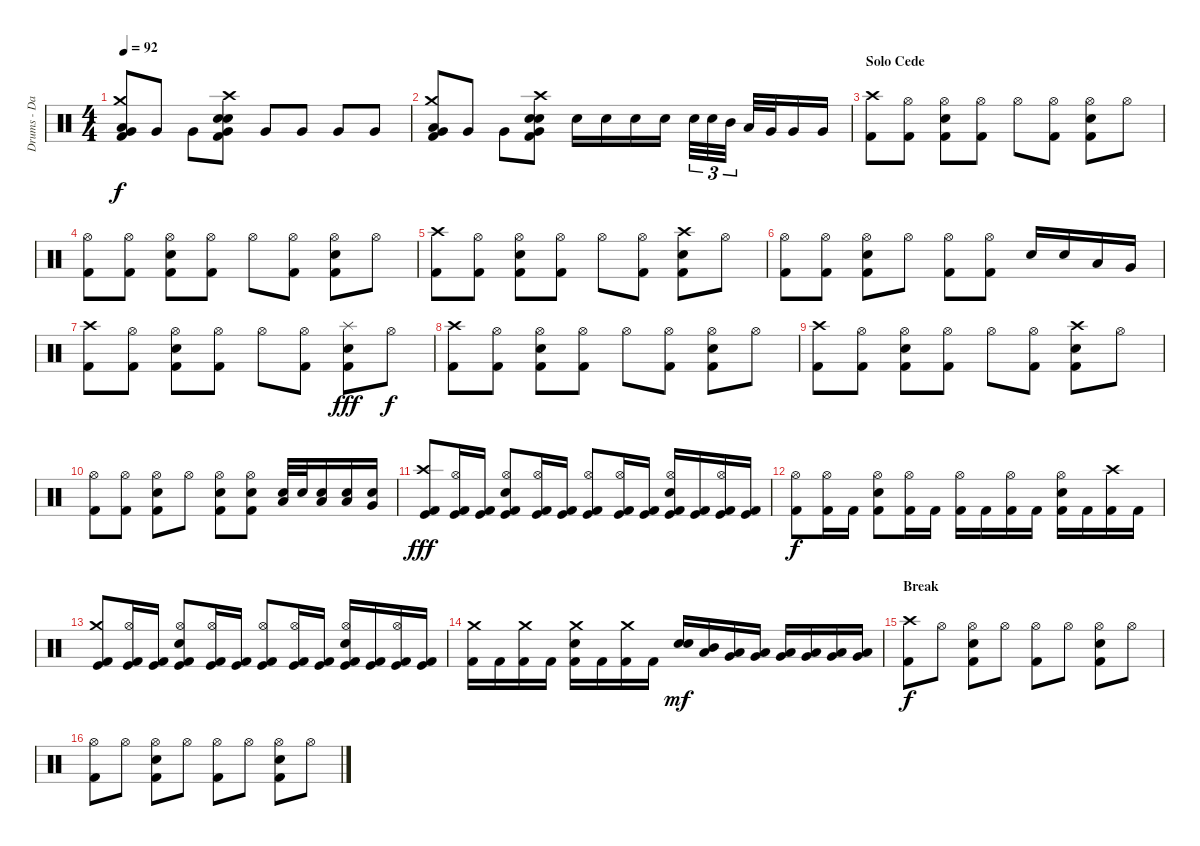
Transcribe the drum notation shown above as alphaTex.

\track ("Drums - Daniel Zimmermann" "Drums - Da") {instrument percussion}
\staff {score}
\articulation defaults
\ts (4 4)
\tempo 92
\clef neutral
\ks c
("Kick (hit) 2" "Crash medium (hit)" "Low Tom (hit)" "Very Low Tom (hit)").8{dy f} "Very Low Tom (hit)".8 "Very Low Tom (hit)".8 ("Kick (hit) 2" "Electric Snare (hit)" "Crash high (hit)" "Electric Snare (hit)" "Very Low Tom (hit)").8 "Very Low Tom (hit)".8 "Very Low Tom (hit)".8 "Very Low Tom (hit)".8 "Very Low Tom (hit)".8 |
("Kick (hit) 2" "Crash medium (hit)" "Low Tom (hit)" "Very Low Tom (hit)").8 "Very Low Tom (hit)".8 "Very Low Tom (hit)".8 ("Kick (hit) 2" "Electric Snare (hit)" "Crash high (hit)" "Electric Snare (hit)" "Very Low Tom (hit)").8 "Electric Snare (hit)".16 "Electric Snare (hit)".16 "Electric Snare (hit)".16 "Electric Snare (hit)".16 "Electric Snare (hit)".32{tu (3 2)} "Electric Snare (hit)".32{tu (3 2)} "Mid Tom (hit)".32{tu (3 2)} "Low Tom (hit)".32 "Very Low Tom (hit)".32 "Very Low Tom (hit)".16 "Very Low Tom (hit)".16 |
\section ("" "Solo Cede")
("Kick (hit) 2" "Crash high (hit)").8 ("Kick (hit) 2" "Hi-Hat (open)").8 ("Kick (hit) 2" "Electric Snare (hit)" "Hi-Hat (open)").8 ("Kick (hit) 2" "Hi-Hat (open)").8 "Hi-Hat (open)".8 ("Kick (hit) 2" "Hi-Hat (open)").8 ("Kick (hit) 2" "Electric Snare (hit)" "Hi-Hat (open)").8 "Hi-Hat (open)".8 |
("Kick (hit) 2" "Hi-Hat (open)").8 ("Kick (hit) 2" "Hi-Hat (open)").8 ("Kick (hit) 2" "Electric Snare (hit)" "Hi-Hat (open)").8 ("Kick (hit) 2" "Hi-Hat (open)").8 "Hi-Hat (open)".8 ("Kick (hit) 2" "Hi-Hat (open)").8 ("Kick (hit) 2" "Electric Snare (hit)" "Hi-Hat (open)").8 "Hi-Hat (open)".8 |
("Kick (hit) 2" "Crash high (hit)").8 ("Kick (hit) 2" "Hi-Hat (open)").8 ("Kick (hit) 2" "Electric Snare (hit)" "Hi-Hat (open)").8 ("Kick (hit) 2" "Hi-Hat (open)").8 "Hi-Hat (open)".8 ("Kick (hit) 2" "Hi-Hat (open)").8 ("Kick (hit) 2" "Electric Snare (hit)" "Crash high (hit)").8 "Hi-Hat (open)".8 |
("Kick (hit) 2" "Hi-Hat (open)").8 ("Kick (hit) 2" "Hi-Hat (open)").8 ("Kick (hit) 2" "Electric Snare (hit)" "Hi-Hat (open)").8 "Hi-Hat (open)".8 ("Kick (hit) 2" "Hi-Hat (open)").8 ("Kick (hit) 2" "Hi-Hat (open)").8 "Electric Snare (hit)".16 "Electric Snare (hit)".16 "Low Tom (hit)".16 "Very Low Tom (hit)".16 |
("Kick (hit) 2" "Crash high (hit)").8 ("Kick (hit) 2" "Hi-Hat (open)").8 ("Kick (hit) 2" "Electric Snare (hit)" "Hi-Hat (open)").8 ("Kick (hit) 2" "Hi-Hat (open)").8 "Hi-Hat (open)".8 ("Kick (hit) 2" "Hi-Hat (open)").8 ("Kick (hit) 2" "Electric Snare (hit)" "Splash (hit)").8{dy fff} "Hi-Hat (open)".8{dy f} |
("Kick (hit) 2" "Crash high (hit)").8 ("Kick (hit) 2" "Hi-Hat (open)").8 ("Kick (hit) 2" "Electric Snare (hit)" "Hi-Hat (open)").8 ("Kick (hit) 2" "Hi-Hat (open)").8 "Hi-Hat (open)".8 ("Kick (hit) 2" "Hi-Hat (open)").8 ("Kick (hit) 2" "Electric Snare (hit)" "Hi-Hat (open)").8 "Hi-Hat (open)".8 |
("Kick (hit) 2" "Crash high (hit)").8 ("Kick (hit) 2" "Hi-Hat (open)").8 ("Kick (hit) 2" "Electric Snare (hit)" "Hi-Hat (open)").8 ("Kick (hit) 2" "Hi-Hat (open)").8 "Hi-Hat (open)".8 ("Kick (hit) 2" "Hi-Hat (open)").8 ("Kick (hit) 2" "Electric Snare (hit)" "Crash high (hit)").8 "Hi-Hat (open)".8 |
("Kick (hit) 2" "Hi-Hat (open)").8 ("Kick (hit) 2" "Hi-Hat (open)").8 ("Kick (hit) 2" "Electric Snare (hit)" "Hi-Hat (open)").8 "Hi-Hat (open)".8 ("Kick (hit) 2" "Electric Snare (hit)" "Hi-Hat (open)").8 ("Kick (hit) 2" "Electric Snare (hit)" "Hi-Hat (open)").8 ("Electric Snare (hit)" "Low Tom (hit)").32 "Electric Snare (hit)".32 ("Electric Snare (hit)" "Low Tom (hit)").16 ("Electric Snare (hit)" "Low Tom (hit)").16 ("Electric Snare (hit)" "Very Low Tom (hit)").16 |
("Kick (hit) 2" "Kick (hit)" "Crash high (hit)").8{dy fff} ("Kick (hit) 2" "Kick (hit)" "Hi-Hat (open)").16 ("Kick (hit) 2" "Kick (hit)").16 ("Kick (hit) 2" "Kick (hit)" "Electric Snare (hit)" "Hi-Hat (open)").8 ("Kick (hit) 2" "Kick (hit)" "Hi-Hat (open)").16 ("Kick (hit) 2" "Kick (hit)").16 ("Kick (hit) 2" "Kick (hit)" "Hi-Hat (open)").8 ("Kick (hit) 2" "Kick (hit)" "Hi-Hat (open)").16 ("Kick (hit) 2" "Kick (hit)").16 ("Kick (hit) 2" "Kick (hit)" "Electric Snare (hit)" "Hi-Hat (open)").16 ("Kick (hit) 2" "Kick (hit)").16 ("Kick (hit) 2" "Kick (hit)" "Hi-Hat (open)").16 ("Kick (hit) 2" "Kick (hit)").16 |
("Kick (hit) 2" "Hi-Hat (open)").8{dy f} ("Kick (hit) 2" "Hi-Hat (open)").16 "Kick (hit) 2".16 ("Kick (hit) 2" "Electric Snare (hit)" "Hi-Hat (open)").8 ("Kick (hit) 2" "Hi-Hat (open)").16 "Kick (hit) 2".16 ("Kick (hit) 2" "Hi-Hat (open)").16 "Kick (hit) 2".16 ("Kick (hit) 2" "Hi-Hat (open)").16 "Kick (hit) 2".16 ("Kick (hit) 2" "Electric Snare (hit)" "Hi-Hat (open)").16 "Kick (hit) 2".16 ("Kick (hit) 2" "Crash high (hit)").16 "Kick (hit) 2".16 |
("Kick (hit) 2" "Kick (hit)" "Crash medium (hit)").8 ("Kick (hit) 2" "Kick (hit)" "Hi-Hat (open)").16 ("Kick (hit) 2" "Kick (hit)").16 ("Kick (hit) 2" "Kick (hit)" "Electric Snare (hit)" "Hi-Hat (open)").8 ("Kick (hit) 2" "Kick (hit)" "Hi-Hat (open)").16 ("Kick (hit) 2" "Kick (hit)").16 ("Kick (hit) 2" "Kick (hit)" "Hi-Hat (open)").8 ("Kick (hit) 2" "Kick (hit)" "Hi-Hat (open)").16 ("Kick (hit) 2" "Kick (hit)").16 ("Kick (hit) 2" "Kick (hit)" "Electric Snare (hit)" "Hi-Hat (open)").16 ("Kick (hit) 2" "Kick (hit)").16 ("Kick (hit) 2" "Kick (hit)" "Hi-Hat (open)").16 ("Kick (hit) 2" "Kick (hit)").16 |
("Kick (hit) 2" "Crash medium (hit)").16 "Kick (hit) 2".16 ("Kick (hit) 2" "Crash medium (hit)").16 "Kick (hit) 2".16 ("Kick (hit) 2" "Electric Snare (hit)" "Crash medium (hit)").16 "Kick (hit) 2".16 ("Kick (hit) 2" "Crash medium (hit)").16 "Kick (hit) 2".16 ("Electric Snare (hit)" "Electric Snare (hit)").16{dy mf} ("Low Tom (hit)" "Mid Tom (hit)").16 ("Very Low Tom (hit)" "Low Tom (hit)").16 ("Very Low Tom (hit)" "Low Tom (hit)").16 ("Very Low Tom (hit)" "Low Tom (hit)").16 ("Low Floor Tom (hit)" "Very Low Tom (hit)").16 ("Low Floor Tom (hit)" "Very Low Tom (hit)").16 ("Low Floor Tom (hit)" "Very Low Tom (hit)").16 |
\section ("" "Break")
("Kick (hit) 2" "Crash high (hit)").8{dy f} "Hi-Hat (open)".8 ("Kick (hit) 2" "Electric Snare (hit)" "Hi-Hat (open)").8 "Hi-Hat (open)".8 ("Kick (hit) 2" "Hi-Hat (open)").8 "Hi-Hat (open)".8 ("Kick (hit) 2" "Electric Snare (hit)" "Hi-Hat (open)").8 "Hi-Hat (open)".8 |
("Kick (hit) 2" "Hi-Hat (open)").8 "Hi-Hat (open)".8 ("Kick (hit) 2" "Electric Snare (hit)" "Hi-Hat (open)").8 "Hi-Hat (open)".8 ("Kick (hit) 2" "Hi-Hat (open)").8 "Hi-Hat (open)".8 ("Kick (hit) 2" "Electric Snare (hit)" "Hi-Hat (open)").8 "Hi-Hat (open)".8
